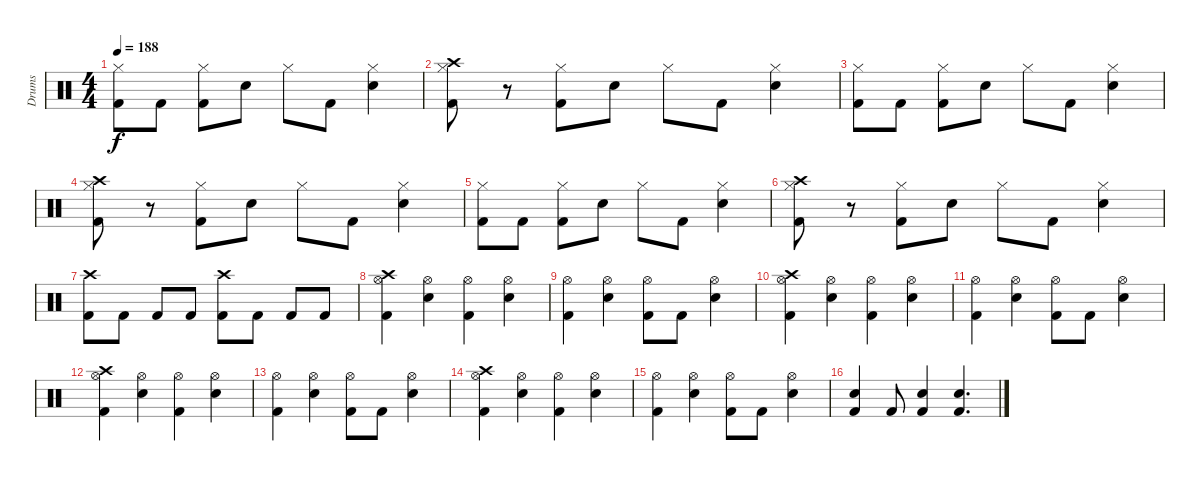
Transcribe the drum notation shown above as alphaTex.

\track ("Drums" "Drums") {instrument percussion}
\staff {score}
\articulation defaults
\ts (4 4)
\tempo 188
\clef neutral
\ks c
("Hi-Hat (closed)" "Kick (hit) 2").8{dy f} "Kick (hit) 2".8 ("Hi-Hat (closed)" "Kick (hit) 2").8 "Snare (hit) 2".8 "Hi-Hat (closed)".8 "Kick (hit) 2".8 ("Hi-Hat (closed)" "Snare (hit) 2").4 |
("Crash high (hit)" "Hi-Hat (closed)" "Kick (hit) 2").8 r.8 ("Hi-Hat (closed)" "Kick (hit) 2").8 "Snare (hit) 2".8 "Hi-Hat (closed)".8 "Kick (hit) 2".8 ("Hi-Hat (closed)" "Snare (hit) 2").4 |
("Hi-Hat (closed)" "Kick (hit) 2").8 "Kick (hit) 2".8 ("Hi-Hat (closed)" "Kick (hit) 2").8 "Snare (hit) 2".8 "Hi-Hat (closed)".8 "Kick (hit) 2".8 ("Hi-Hat (closed)" "Snare (hit) 2").4 |
("Crash high (hit)" "Hi-Hat (closed)" "Kick (hit) 2").8 r.8 ("Hi-Hat (closed)" "Kick (hit) 2").8 "Snare (hit) 2".8 "Hi-Hat (closed)".8 "Kick (hit) 2".8 ("Hi-Hat (closed)" "Snare (hit) 2").4 |
("Hi-Hat (closed)" "Kick (hit) 2").8 "Kick (hit) 2".8 ("Hi-Hat (closed)" "Kick (hit) 2").8 "Snare (hit) 2".8 "Hi-Hat (closed)".8 "Kick (hit) 2".8 ("Hi-Hat (closed)" "Snare (hit) 2").4 |
("Crash high (hit)" "Hi-Hat (closed)" "Kick (hit) 2").8 r.8 ("Hi-Hat (closed)" "Kick (hit) 2").8 "Snare (hit) 2".8 "Hi-Hat (closed)".8 "Kick (hit) 2".8 ("Hi-Hat (closed)" "Snare (hit) 2").4 |
("Crash high (hit)" "Kick (hit) 2").8 "Kick (hit) 2".8 "Kick (hit) 2".8 "Kick (hit) 2".8 ("Crash high (hit)" "Kick (hit) 2").8 "Kick (hit) 2".8 "Kick (hit) 2".8 "Kick (hit) 2".8 |
("Crash high (hit)" "Hi-Hat (open)" "Kick (hit) 2").4 ("Hi-Hat (open)" "Snare (hit) 2").4 ("Hi-Hat (open)" "Kick (hit) 2").4 ("Hi-Hat (open)" "Snare (hit) 2").4 |
("Hi-Hat (open)" "Kick (hit) 2").4 ("Hi-Hat (open)" "Snare (hit) 2").4 ("Hi-Hat (open)" "Kick (hit) 2").8 "Kick (hit) 2".8 ("Hi-Hat (open)" "Snare (hit) 2").4 |
("Crash high (hit)" "Hi-Hat (open)" "Kick (hit) 2").4 ("Hi-Hat (open)" "Snare (hit) 2").4 ("Hi-Hat (open)" "Kick (hit) 2").4 ("Hi-Hat (open)" "Snare (hit) 2").4 |
("Hi-Hat (open)" "Kick (hit) 2").4 ("Hi-Hat (open)" "Snare (hit) 2").4 ("Hi-Hat (open)" "Kick (hit) 2").8 "Kick (hit) 2".8 ("Hi-Hat (open)" "Snare (hit) 2").4 |
("Crash high (hit)" "Hi-Hat (open)" "Kick (hit) 2").4 ("Hi-Hat (open)" "Snare (hit) 2").4 ("Hi-Hat (open)" "Kick (hit) 2").4 ("Hi-Hat (open)" "Snare (hit) 2").4 |
("Hi-Hat (open)" "Kick (hit) 2").4 ("Hi-Hat (open)" "Snare (hit) 2").4 ("Hi-Hat (open)" "Kick (hit) 2").8 "Kick (hit) 2".8 ("Hi-Hat (open)" "Snare (hit) 2").4 |
("Crash high (hit)" "Hi-Hat (open)" "Kick (hit) 2").4 ("Hi-Hat (open)" "Snare (hit) 2").4 ("Hi-Hat (open)" "Kick (hit) 2").4 ("Hi-Hat (open)" "Snare (hit) 2").4 |
("Hi-Hat (open)" "Kick (hit) 2").4 ("Hi-Hat (open)" "Snare (hit) 2").4 ("Hi-Hat (open)" "Kick (hit) 2").8 "Kick (hit) 2".8 ("Hi-Hat (open)" "Snare (hit) 2").4 |
("Snare (hit) 2" "Kick (hit) 2").4 "Kick (hit) 2".8 ("Snare (hit) 2" "Kick (hit) 2").4 ("Snare (hit) 2" "Kick (hit) 2").4{d}
